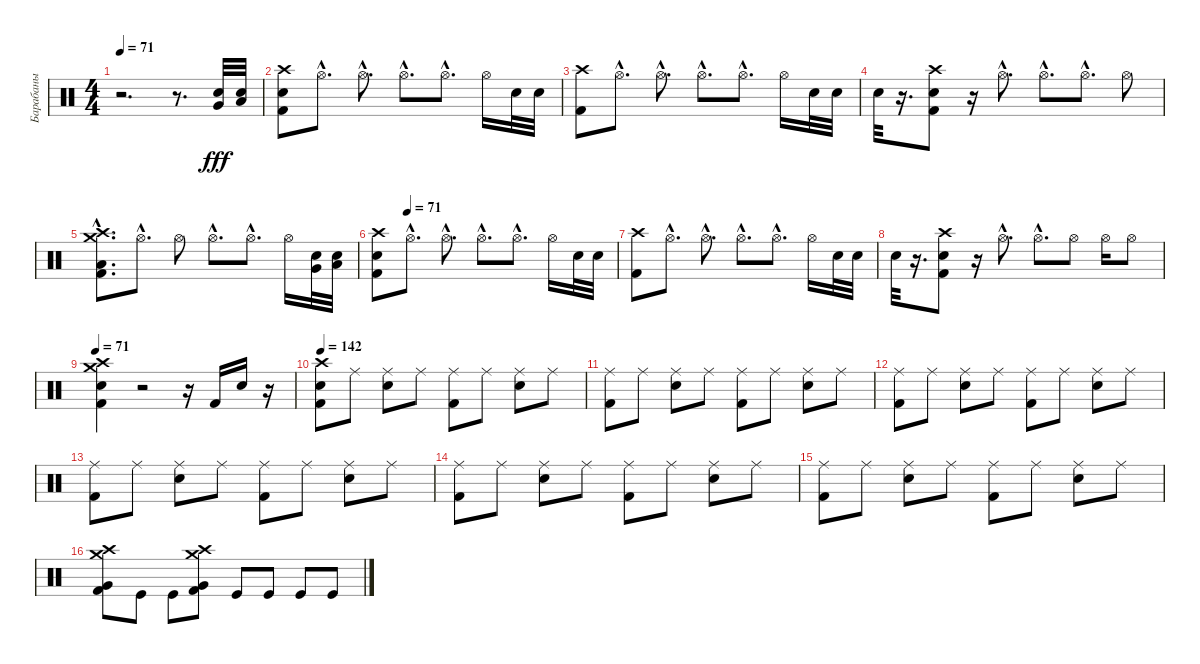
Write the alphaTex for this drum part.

\track ("Барабаны" "Барабаны") {instrument percussion}
\staff {score}
\articulation defaults
\ts (4 4)
\tempo 71
\clef neutral
\ks c
r.2{d dy fff} r.8{d} ("Electric Snare (hit)" "Very Low Tom (hit)").32 ("Electric Snare (hit)" "Low Floor Tom (hit)").32 |
("Crash high (hit)" "Snare (hit) 2" "Kick (hit) 2").8 "Hi-Hat (open)"{hac}.8{d} "Hi-Hat (open)"{hac}.8{d} "Hi-Hat (open)"{hac}.8{d} "Hi-Hat (open)"{hac}.8{d} "Hi-Hat (open)".16 "Electric Snare (hit)".32 "Electric Snare (hit)".32 |
("Crash high (hit)" "Kick (hit) 2").8 "Hi-Hat (open)"{hac}.8{d} "Hi-Hat (open)"{hac}.8{d} "Hi-Hat (open)"{hac}.8{d} "Hi-Hat (open)"{hac}.8{d} "Hi-Hat (open)".16 "Electric Snare (hit)".32 "Electric Snare (hit)".32 |
"Electric Snare (hit)".32 r.16{d} ("Crash high (hit)" "Snare (hit) 2" "Kick (hit) 2").8 r.16 "Hi-Hat (open)"{hac}.8{d} "Hi-Hat (open)"{hac}.8{d} "Hi-Hat (open)"{hac}.8{d} "Hi-Hat (open)".8 |
("Crash high (hit)"{hac} "Low Floor Tom (hit)"{hac} "Kick (hit) 2"{hac} "Crash medium (hit)"{hac}).8{d} "Hi-Hat (open)"{hac}.8{d} "Hi-Hat (open)".8 "Hi-Hat (open)"{hac}.8{d} "Hi-Hat (open)"{hac}.8{d} "Hi-Hat (open)".16 ("Electric Snare (hit)" "Very Low Tom (hit)").32 ("Electric Snare (hit)" "Low Floor Tom (hit)").32 |
\tempo (71 0.125)
("Crash high (hit)" "Snare (hit) 2" "Kick (hit) 2").8 "Hi-Hat (open)"{hac}.8{d} "Hi-Hat (open)"{hac}.8{d} "Hi-Hat (open)"{hac}.8{d} "Hi-Hat (open)"{hac}.8{d} "Hi-Hat (open)".16 "Electric Snare (hit)".32 "Electric Snare (hit)".32 |
("Crash high (hit)" "Kick (hit) 2").8 "Hi-Hat (open)"{hac}.8{d} "Hi-Hat (open)"{hac}.8{d} "Hi-Hat (open)"{hac}.8{d} "Hi-Hat (open)"{hac}.8{d} "Hi-Hat (open)".16 "Electric Snare (hit)".32 "Electric Snare (hit)".32 |
"Electric Snare (hit)".32 r.16{d} ("Crash high (hit)" "Snare (hit) 2" "Kick (hit) 2").8 r.16 "Hi-Hat (open)"{hac}.8{d} "Hi-Hat (open)"{hac}.8{d} "Hi-Hat (open)".8 "Hi-Hat (open)".16 "Hi-Hat (open)".8 |
\tempo 71
("Crash high (hit)" "Crash medium (hit)" "Electric Snare (hit)" "Kick (hit) 2").4 r.2 r.16 "Kick (hit) 2".16 "Snare (hit) 2".16 r.16 |
\tempo 142
("Snare (hit) 2" "Crash high (hit)" "Kick (hit) 2").8 "Ride (middle)".8 ("Ride (middle)" "Snare (hit) 2").8 "Ride (middle)".8 ("Ride (middle)" "Kick (hit) 2").8 "Ride (middle)".8 ("Ride (middle)" "Snare (hit) 2").8 "Ride (middle)".8 |
("Ride (middle)" "Kick (hit) 2").8 "Ride (middle)".8 ("Ride (middle)" "Snare (hit) 2").8 "Ride (middle)".8 ("Ride (middle)" "Kick (hit) 2").8 "Ride (middle)".8 ("Ride (middle)" "Snare (hit) 2").8 "Ride (middle)".8 |
("Ride (middle)" "Kick (hit) 2").8 "Ride (middle)".8 ("Ride (middle)" "Snare (hit) 2").8 "Ride (middle)".8 ("Ride (middle)" "Kick (hit) 2").8 "Ride (middle)".8 ("Ride (middle)" "Snare (hit) 2").8 "Ride (middle)".8 |
("Ride (middle)" "Kick (hit) 2").8 "Ride (middle)".8 ("Ride (middle)" "Snare (hit) 2").8 "Ride (middle)".8 ("Ride (middle)" "Kick (hit) 2").8 "Ride (middle)".8 ("Ride (middle)" "Snare (hit) 2").8 "Ride (middle)".8 |
("Ride (middle)" "Kick (hit) 2").8 "Ride (middle)".8 ("Ride (middle)" "Snare (hit) 2").8 "Ride (middle)".8 ("Ride (middle)" "Kick (hit) 2").8 "Ride (middle)".8 ("Ride (middle)" "Snare (hit) 2").8 "Ride (middle)".8 |
("Ride (middle)" "Kick (hit) 2").8 "Ride (middle)".8 ("Ride (middle)" "Snare (hit) 2").8 "Ride (middle)".8 ("Ride (middle)" "Kick (hit) 2").8 "Ride (middle)".8 ("Ride (middle)" "Snare (hit) 2").8 "Ride (middle)".8 |
("Very Low Tom (hit)" "Crash medium (hit)" "Crash high (hit)" "Kick (hit) 2").8 "Kick (hit)".8 "Kick (hit)".8 ("Very Low Tom (hit)" "Crash medium (hit)" "Crash high (hit)" "Kick (hit) 2").8 "Kick (hit)".8 "Kick (hit)".8 "Kick (hit)".8 "Kick (hit)".8
